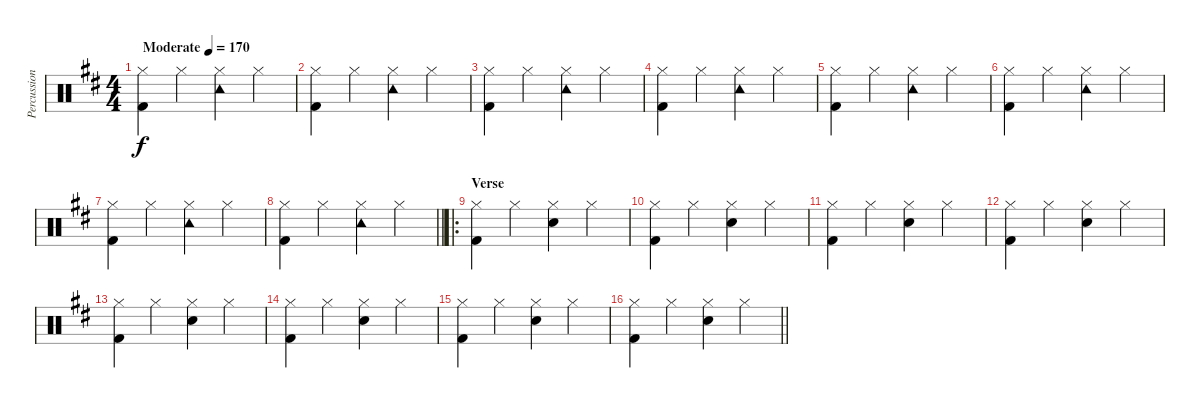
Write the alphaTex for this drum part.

\track ("Percussion" "Percussion") {instrument percussion}
\staff {score}
\articulation defaults
\ts (4 4)
\tempo (170 "Moderate")
\clef neutral
\ks d
("Hi-Hat (closed)" "Kick (hit) 2").4{dy f} "Hi-Hat (closed)".4 ("Hi-Hat (closed)" "Tambourine (hit)").4 "Hi-Hat (closed)".4 |
("Hi-Hat (closed)" "Kick (hit) 2").4 "Hi-Hat (closed)".4 ("Hi-Hat (closed)" "Tambourine (hit)").4 "Hi-Hat (closed)".4 |
("Hi-Hat (closed)" "Kick (hit) 2").4 "Hi-Hat (closed)".4 ("Hi-Hat (closed)" "Tambourine (hit)").4 "Hi-Hat (closed)".4 |
("Hi-Hat (closed)" "Kick (hit) 2").4 "Hi-Hat (closed)".4 ("Hi-Hat (closed)" "Tambourine (hit)").4 "Hi-Hat (closed)".4 |
("Hi-Hat (closed)" "Kick (hit) 2").4 "Hi-Hat (closed)".4 ("Hi-Hat (closed)" "Tambourine (hit)").4 "Hi-Hat (closed)".4 |
("Hi-Hat (closed)" "Kick (hit) 2").4 "Hi-Hat (closed)".4 ("Hi-Hat (closed)" "Tambourine (hit)").4 "Hi-Hat (closed)".4 |
("Hi-Hat (closed)" "Kick (hit) 2").4 "Hi-Hat (closed)".4 ("Hi-Hat (closed)" "Tambourine (hit)").4 "Hi-Hat (closed)".4 |
\barLineRight lightlight
("Hi-Hat (closed)" "Kick (hit) 2").4 "Hi-Hat (closed)".4 ("Hi-Hat (closed)" "Tambourine (hit)").4 "Hi-Hat (closed)".4 |
\ro
\section ("" "Verse")
("Hi-Hat (closed)" "Kick (hit) 2").4 "Hi-Hat (closed)".4 ("Hi-Hat (closed)" "Snare (hit) 2").4 "Hi-Hat (closed)".4 |
("Hi-Hat (closed)" "Kick (hit) 2").4 "Hi-Hat (closed)".4 ("Hi-Hat (closed)" "Snare (hit) 2").4 "Hi-Hat (closed)".4 |
("Hi-Hat (closed)" "Kick (hit) 2").4 "Hi-Hat (closed)".4 ("Hi-Hat (closed)" "Snare (hit) 2").4 "Hi-Hat (closed)".4 |
("Hi-Hat (closed)" "Kick (hit) 2").4 "Hi-Hat (closed)".4 ("Hi-Hat (closed)" "Snare (hit) 2").4 "Hi-Hat (closed)".4 |
("Hi-Hat (closed)" "Kick (hit) 2").4 "Hi-Hat (closed)".4 ("Hi-Hat (closed)" "Snare (hit) 2").4 "Hi-Hat (closed)".4 |
("Hi-Hat (closed)" "Kick (hit) 2").4 "Hi-Hat (closed)".4 ("Hi-Hat (closed)" "Snare (hit) 2").4 "Hi-Hat (closed)".4 |
("Hi-Hat (closed)" "Kick (hit) 2").4 "Hi-Hat (closed)".4 ("Hi-Hat (closed)" "Snare (hit) 2").4 "Hi-Hat (closed)".4 |
\barLineRight lightlight
("Hi-Hat (closed)" "Kick (hit) 2").4 "Hi-Hat (closed)".4 ("Hi-Hat (closed)" "Snare (hit) 2").4 "Hi-Hat (closed)".4
